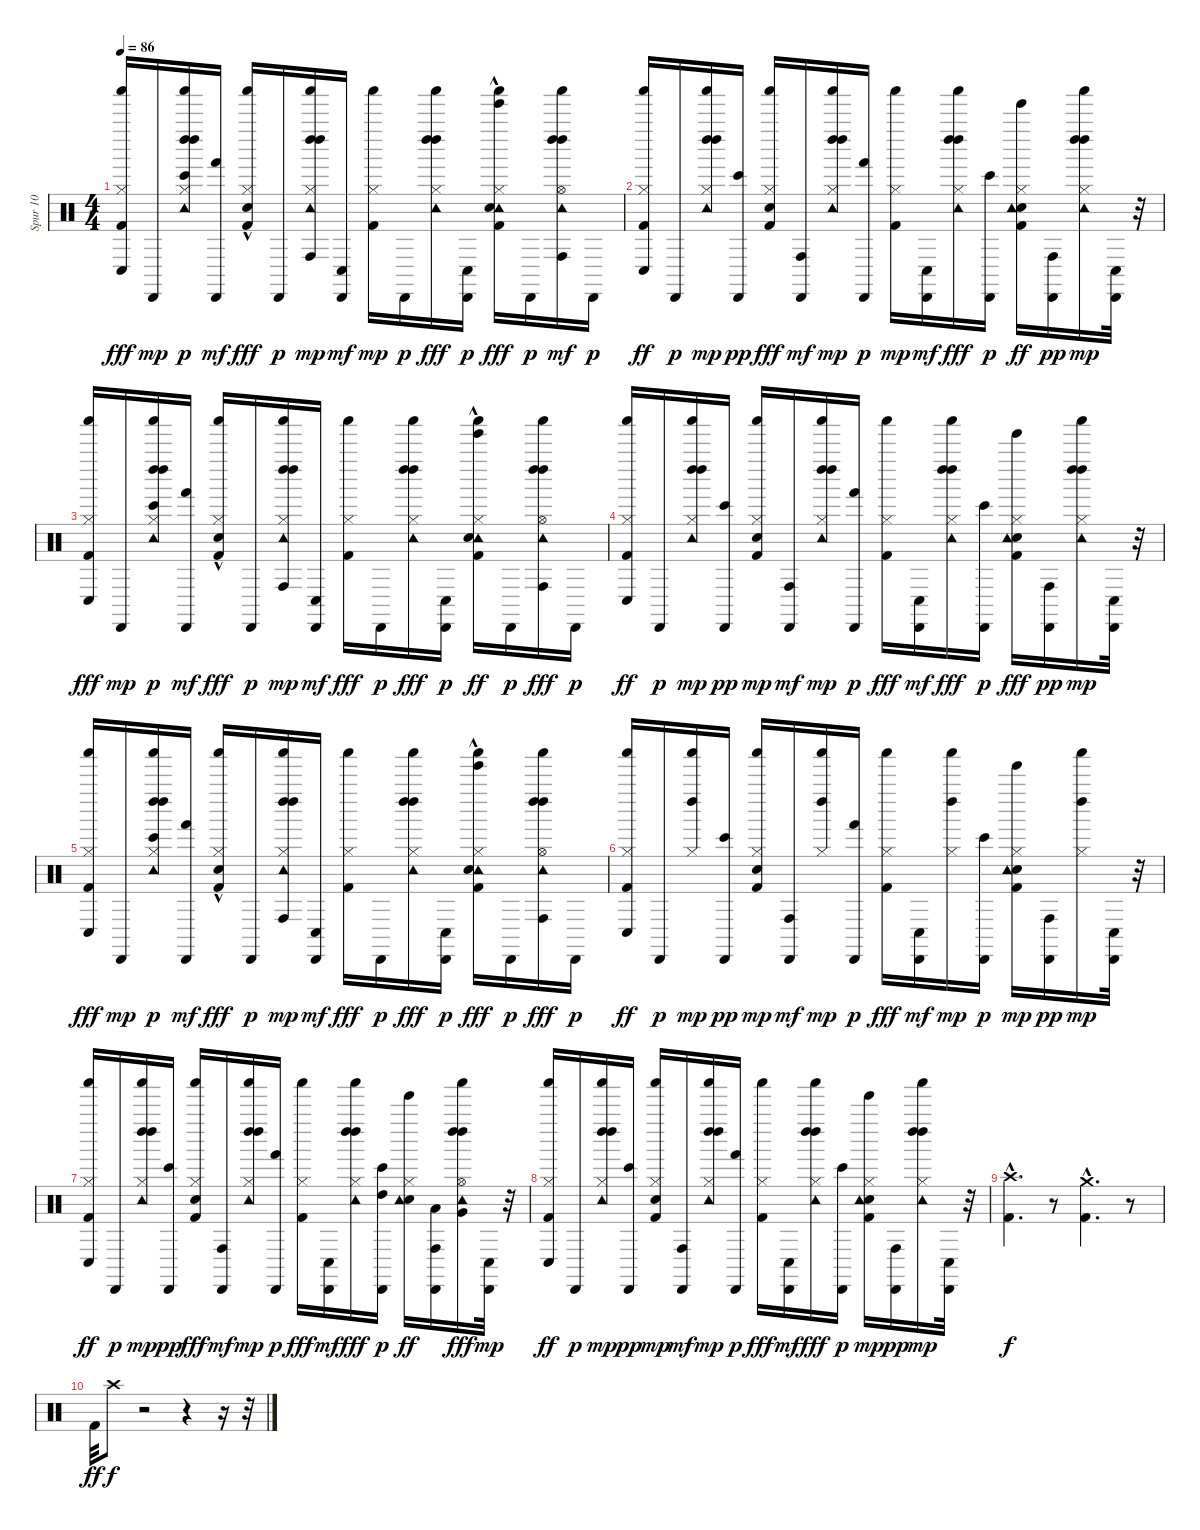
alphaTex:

\track ("Spur 10" "Spur 10") {instrument percussion}
\staff {score}
\articulation defaults
\ts (4 4)
\tempo 86
\clef neutral
\ks c
("Hi-Hat (closed)" "Kick (hit) 2" "Shaker (hit)" "Conga low (hit)").16{dy fff} "Cabasa (hit)".16{dy mp} ("Hi-Hat (closed)" "Shaker (hit)" "Bongo High (hit)" "Tambourine (hit)" "Left Maraca (hit)" "Left Maraca (hit)").16{dy p} ("Cabasa (hit)" "Hand (hit)").16{dy mf} ("Hi-Hat (closed)" "Snare (hit) 2"{hac} "Shaker (hit)" "Kick (hit) 2").16{dy fff} "Cabasa (hit)".16{dy p} ("Conga high (hit)" "Shaker (hit)" "Hi-Hat (closed)" "Tambourine (hit)" "Left Maraca (hit)" "Left Maraca (hit)").16{dy mp} ("Cabasa (hit)" "Conga low (hit)").16{dy mf} ("Shaker (hit)" "Kick (hit) 2" "Hi-Hat (closed)").16{dy mp} "Cabasa (hit)".16{dy p} ("Shaker (hit)" "Hi-Hat (closed)" "Tambourine (hit)" "Left Maraca (hit)" "Left Maraca (hit)").16{dy fff} ("Cabasa (hit)" "Conga low (hit)").16{dy p} ("Tinkle Bell (hit)" "Tambourine (hit)"{hac} "Shaker (hit)" "Kick (hit) 2" "Snare (hit) 2"{hac} "Hi-Hat (closed)").16{dy fff} "Cabasa (hit)".16{dy p} ("Shaker (hit)" "Conga high (hit)" "Hi-Hat (open)" "Tambourine (hit)" "Left Maraca (hit)" "Left Maraca (hit)").16{dy mf} "Cabasa (hit)".16{dy p} |
("Hi-Hat (closed)" "Shaker (hit)" "Kick (hit) 2" "Conga low (hit)").16{dy ff} "Cabasa (hit)".16{dy p} ("Shaker (hit)" "Hi-Hat (closed)" "Left Maraca (hit)" "Tambourine (hit)" "Left Maraca (hit)").16{dy mp} ("Bongo High (hit)" "Cabasa (hit)").16{dy pp} ("Hi-Hat (closed)" "Shaker (hit)" "Kick (hit) 2" "Snare (hit) 2").16{dy fff} ("Cabasa (hit)" "Conga high (hit)").16{dy mf} ("Hi-Hat (closed)" "Shaker (hit)" "Left Maraca (hit)" "Tambourine (hit)" "Left Maraca (hit)").16{dy mp} ("Hand (hit)" "Cabasa (hit)").16{dy p} ("Shaker (hit)" "Kick (hit) 2" "Hi-Hat (closed)").16{dy mp} ("Cabasa (hit)" "Conga low (hit)").16{dy mf} ("Shaker (hit)" "Hi-Hat (closed)" "Left Maraca (hit)" "Tambourine (hit)" "Left Maraca (hit)").16{dy fff} ("Bongo High (hit)" "Cabasa (hit)").16{dy p} ("Hi-Hat (closed)" "Snare (hit) 2" "Kick (hit) 2" "Tambourine (hit)" "Tinkle Bell (hit)").16{dy ff} ("Conga high (hit)" "Cabasa (hit)").16{dy pp} ("Shaker (hit)" "Hi-Hat (closed)" "Left Maraca (hit)" "Tambourine (hit)" "Left Maraca (hit)").16{dy mp} ("Conga low (hit)" "Cabasa (hit)").32 r.32 |
("Hi-Hat (closed)" "Kick (hit) 2" "Shaker (hit)" "Conga low (hit)").16{dy fff} "Cabasa (hit)".16{dy mp} ("Hi-Hat (closed)" "Shaker (hit)" "Bongo High (hit)" "Left Maraca (hit)" "Tambourine (hit)" "Left Maraca (hit)").16{dy p} ("Cabasa (hit)" "Hand (hit)").16{dy mf} ("Hi-Hat (closed)" "Snare (hit) 2"{hac} "Shaker (hit)" "Kick (hit) 2").16{dy fff} "Cabasa (hit)".16{dy p} ("Conga high (hit)" "Shaker (hit)" "Hi-Hat (closed)" "Left Maraca (hit)" "Tambourine (hit)" "Left Maraca (hit)").16{dy mp} ("Cabasa (hit)" "Conga low (hit)").16{dy mf} ("Hi-Hat (closed)" "Shaker (hit)" "Kick (hit) 2").16{dy fff} "Cabasa (hit)".16{dy p} ("Shaker (hit)" "Hi-Hat (closed)" "Left Maraca (hit)" "Tambourine (hit)" "Left Maraca (hit)").16{dy fff} ("Cabasa (hit)" "Conga low (hit)").16{dy p} ("Hi-Hat (closed)" "Tambourine (hit)"{hac} "Shaker (hit)" "Kick (hit) 2" "Snare (hit) 2"{hac} "Tinkle Bell (hit)"{hac}).16{dy ff} "Cabasa (hit)".16{dy p} ("Hi-Hat (open)" "Shaker (hit)" "Conga high (hit)" "Left Maraca (hit)" "Tambourine (hit)" "Left Maraca (hit)").16{dy fff} "Cabasa (hit)".16{dy p} |
("Hi-Hat (closed)" "Shaker (hit)" "Kick (hit) 2" "Conga low (hit)").16{dy ff} "Cabasa (hit)".16{dy p} ("Shaker (hit)" "Hi-Hat (closed)" "Left Maraca (hit)" "Tambourine (hit)" "Left Maraca (hit)").16{dy mp} ("Bongo High (hit)" "Cabasa (hit)").16{dy pp} ("Shaker (hit)" "Kick (hit) 2" "Snare (hit) 2" "Hi-Hat (closed)").16{dy mp} ("Cabasa (hit)" "Conga high (hit)").16{dy mf} ("Shaker (hit)" "Hi-Hat (closed)" "Left Maraca (hit)" "Tambourine (hit)" "Left Maraca (hit)").16{dy mp} ("Hand (hit)" "Cabasa (hit)").16{dy p} ("Hi-Hat (closed)" "Shaker (hit)" "Kick (hit) 2").16{dy fff} ("Cabasa (hit)" "Conga low (hit)").16{dy mf} ("Hi-Hat (closed)" "Shaker (hit)" "Left Maraca (hit)" "Tambourine (hit)" "Left Maraca (hit)").16{dy fff} ("Bongo High (hit)" "Cabasa (hit)").16{dy p} ("Hi-Hat (closed)" "Tinkle Bell (hit)" "Kick (hit) 2" "Snare (hit) 2" "Tambourine (hit)").16{dy fff} ("Conga high (hit)" "Cabasa (hit)").16{dy pp} ("Hi-Hat (closed)" "Shaker (hit)" "Left Maraca (hit)" "Tambourine (hit)" "Left Maraca (hit)").16{dy mp} ("Conga low (hit)" "Cabasa (hit)").32 r.32 |
("Hi-Hat (closed)" "Kick (hit) 2" "Shaker (hit)" "Conga low (hit)").16{dy fff} "Cabasa (hit)".16{dy mp} ("Hi-Hat (closed)" "Shaker (hit)" "Bongo High (hit)" "Left Maraca (hit)" "Tambourine (hit)" "Left Maraca (hit)").16{dy p} ("Cabasa (hit)" "Hand (hit)").16{dy mf} ("Hi-Hat (closed)" "Snare (hit) 2"{hac} "Shaker (hit)" "Kick (hit) 2").16{dy fff} "Cabasa (hit)".16{dy p} ("Hi-Hat (closed)" "Conga high (hit)" "Shaker (hit)" "Left Maraca (hit)" "Tambourine (hit)" "Left Maraca (hit)").16{dy mp} ("Cabasa (hit)" "Conga low (hit)").16{dy mf} ("Hi-Hat (closed)" "Shaker (hit)" "Kick (hit) 2").16{dy fff} "Cabasa (hit)".16{dy p} ("Hi-Hat (closed)" "Shaker (hit)" "Left Maraca (hit)" "Tambourine (hit)" "Left Maraca (hit)").16{dy fff} ("Cabasa (hit)" "Conga low (hit)").16{dy p} ("Hi-Hat (closed)" "Tinkle Bell (hit)"{hac} "Tambourine (hit)"{hac} "Shaker (hit)" "Kick (hit) 2" "Snare (hit) 2"{hac}).16{dy fff} "Cabasa (hit)".16{dy p} ("Hi-Hat (open)" "Shaker (hit)" "Conga high (hit)" "Left Maraca (hit)" "Tambourine (hit)" "Left Maraca (hit)").16{dy fff} "Cabasa (hit)".16{dy p} |
("Hi-Hat (closed)" "Shaker (hit)" "Kick (hit) 2" "Conga low (hit)").16{dy ff} "Cabasa (hit)".16{dy p} ("Shaker (hit)" "Hi-Hat (closed)" "Left Maraca (hit)").16{dy mp} ("Bongo High (hit)" "Cabasa (hit)").16{dy pp} ("Shaker (hit)" "Kick (hit) 2" "Snare (hit) 2" "Hi-Hat (closed)").16{dy mp} ("Cabasa (hit)" "Conga high (hit)").16{dy mf} ("Shaker (hit)" "Hi-Hat (closed)" "Left Maraca (hit)").16{dy mp} ("Hand (hit)" "Cabasa (hit)").16{dy p} ("Hi-Hat (closed)" "Shaker (hit)" "Kick (hit) 2").16{dy fff} ("Cabasa (hit)" "Conga low (hit)").16{dy mf} ("Shaker (hit)" "Hi-Hat (closed)" "Left Maraca (hit)").16{dy mp} ("Bongo High (hit)" "Cabasa (hit)").16{dy p} ("Snare (hit) 2" "Kick (hit) 2" "Tambourine (hit)" "Tinkle Bell (hit)" "Hi-Hat (closed)").16{dy mp} ("Conga high (hit)" "Cabasa (hit)").16{dy pp} ("Shaker (hit)" "Hi-Hat (closed)" "Left Maraca (hit)").16{dy mp} ("Conga low (hit)" "Cabasa (hit)").32 r.32 |
("Hi-Hat (closed)" "Shaker (hit)" "Kick (hit) 2" "Conga low (hit)").16{dy ff} "Cabasa (hit)".16{dy p} ("Hi-Hat (closed)" "Shaker (hit)" "Left Maraca (hit)" "Tambourine (hit)" "Left Maraca (hit)").16{dy mp} ("Bongo High (hit)" "Cabasa (hit)").16{dy pp} ("Hi-Hat (closed)" "Shaker (hit)" "Kick (hit) 2" "Snare (hit) 2").16{dy fff} ("Cabasa (hit)" "Conga high (hit)").16{dy mf} ("Shaker (hit)" "Hi-Hat (closed)" "Left Maraca (hit)" "Tambourine (hit)" "Left Maraca (hit)").16{dy mp} ("Hand (hit)" "Cabasa (hit)").16{dy p} ("Hi-Hat (closed)" "Shaker (hit)" "Kick (hit) 2").16{dy fff} ("Cabasa (hit)" "Conga low (hit)").16{dy mf} ("Shaker (hit)" "Hi-Hat (closed)" "Left Maraca (hit)" "Tambourine (hit)" "Left Maraca (hit)").16{dy fff} ("High Tom (hit)" "Bongo High (hit)" "Cabasa (hit)").16{dy p} ("Snare (hit) 2" "Tambourine (hit)" "Tinkle Bell (hit)" "Hi-Hat (closed)").16{dy ff} ("Conga high (hit)" "Cabasa (hit)" "Low Tom (hit)").16 ("Hi-Hat (open)" "Shaker (hit)" "Very Low Tom (hit)" "Left Maraca (hit)" "Tambourine (hit)" "Left Maraca (hit)").16{dy fff} ("Conga low (hit)" "Cabasa (hit)").32{dy mp} r.32 |
("Hi-Hat (closed)" "Shaker (hit)" "Kick (hit) 2" "Conga low (hit)").16{dy ff} "Cabasa (hit)".16{dy p} ("Shaker (hit)" "Hi-Hat (closed)" "Left Maraca (hit)" "Tambourine (hit)" "Left Maraca (hit)").16{dy mp} ("Bongo High (hit)" "Cabasa (hit)").16{dy pp} ("Shaker (hit)" "Kick (hit) 2" "Snare (hit) 2" "Hi-Hat (closed)").16{dy mp} ("Cabasa (hit)" "Conga high (hit)").16{dy mf} ("Shaker (hit)" "Hi-Hat (closed)" "Left Maraca (hit)" "Tambourine (hit)" "Left Maraca (hit)").16{dy mp} ("Hand (hit)" "Cabasa (hit)").16{dy p} ("Hi-Hat (closed)" "Shaker (hit)" "Kick (hit) 2").16{dy fff} ("Cabasa (hit)" "Conga low (hit)").16{dy mf} ("Shaker (hit)" "Hi-Hat (closed)" "Left Maraca (hit)" "Tambourine (hit)" "Left Maraca (hit)").16{dy fff} ("Bongo High (hit)" "Cabasa (hit)").16{dy p} ("Snare (hit) 2" "Kick (hit) 2" "Tambourine (hit)" "Tinkle Bell (hit)" "Hi-Hat (closed)").16{dy mp} ("Conga high (hit)" "Cabasa (hit)").16{dy pp} ("Shaker (hit)" "Hi-Hat (closed)" "Left Maraca (hit)" "Tambourine (hit)" "Left Maraca (hit)").16{dy mp} ("Conga low (hit)" "Cabasa (hit)").32 r.32 |
("Crash high (hit)"{hac} "Kick (hit) 2"{hac}).4{d dy f} r.8 ("Kick (hit) 2"{hac} "Crash medium (hit)"{hac}).4{d} r.8 |
"Kick (hit) 2".32{dy ff} "Crash high (hit)".8{dy f} r.2 r.4 r.16 r.32
